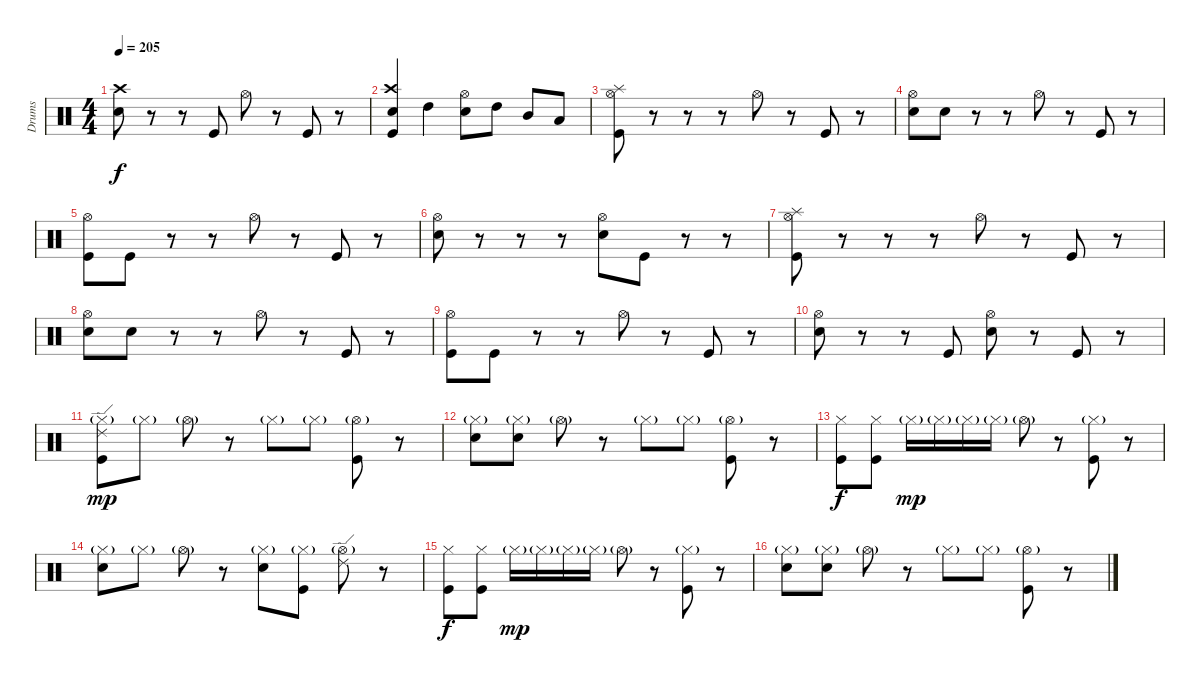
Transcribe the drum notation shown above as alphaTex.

\track ("Drums" "Drums") {instrument percussion}
\staff {score}
\articulation defaults
\ts (4 4)
\tempo 205
\clef neutral
\ks c
("Electric Snare (hit)" "Crash high (hit)").8{dy f} r.8 r.8 "Kick (hit)".8 "Hi-Hat (open)".8 r.8 "Kick (hit)".8 r.8 |
("Electric Snare (hit)" "Crash high (hit)" "Kick (hit)").4 "High Tom (hit)".4 ("Electric Snare (hit)" "Hi-Hat (open)").8 "High Tom (hit)".8 "Mid Tom (hit)".8 "Low Tom (hit)".8 |
("Splash (hit)" "Hi-Hat (open)" "Kick (hit)").8 r.8 r.8 r.8 "Hi-Hat (open)".8 r.8 "Kick (hit)".8 r.8 |
("Electric Snare (hit)" "Hi-Hat (open)").8 "Electric Snare (hit)".8 r.8 r.8 "Hi-Hat (open)".8 r.8 "Kick (hit)".8 r.8 |
("Hi-Hat (open)" "Kick (hit)").8 "Kick (hit)".8 r.8 r.8 "Hi-Hat (open)".8 r.8 "Kick (hit)".8 r.8 |
("Electric Snare (hit)" "Hi-Hat (open)").8 r.8 r.8 r.8 ("Electric Snare (hit)" "Hi-Hat (open)").8 "Kick (hit)".8 r.8 r.8 |
("Splash (hit)" "Hi-Hat (open)" "Kick (hit)").8 r.8 r.8 r.8 "Hi-Hat (open)".8 r.8 "Kick (hit)".8 r.8 |
("Electric Snare (hit)" "Hi-Hat (open)").8 "Electric Snare (hit)".8 r.8 r.8 "Hi-Hat (open)".8 r.8 "Kick (hit)".8 r.8 |
("Hi-Hat (open)" "Kick (hit)").8 "Kick (hit)".8 r.8 r.8 "Hi-Hat (open)".8 r.8 "Kick (hit)".8 r.8 |
("Electric Snare (hit)" "Hi-Hat (open)").8 r.8 r.8 "Kick (hit)".8 ("Electric Snare (hit)" "Hi-Hat (open)").8 r.8 "Kick (hit)".8 r.8 |
("Ride (edge) 2" "Hi-Hat (closed)"{g} "Kick (hit)").8{dy mp} "Hi-Hat (closed)"{g}.8 "Hi-Hat (open)"{g}.8 r.8 "Hi-Hat (closed)"{g}.8 "Hi-Hat (closed)"{g}.8 ("Hi-Hat (open)"{g} "Kick (hit)").8 r.8 |
("Electric Snare (hit)" "Hi-Hat (closed)"{g}).8 ("Electric Snare (hit)" "Hi-Hat (closed)"{g}).8 "Hi-Hat (open)"{g}.8 r.8 "Hi-Hat (closed)"{g}.8 "Hi-Hat (closed)"{g}.8 ("Hi-Hat (open)"{g} "Kick (hit)").8 r.8 |
("Hi-Hat (closed)" "Kick (hit)").8{dy f} ("Hi-Hat (closed)" "Kick (hit)").8 "Hi-Hat (closed)"{g}.16{dy mp} "Hi-Hat (closed)"{g}.16 "Hi-Hat (closed)"{g}.16 "Hi-Hat (closed)"{g}.16 "Hi-Hat (open)"{g}.8 r.8 ("Hi-Hat (closed)"{g} "Kick (hit)").8 r.8 |
("Electric Snare (hit)" "Hi-Hat (closed)"{g}).8 "Hi-Hat (closed)"{g}.8 "Hi-Hat (open)"{g}.8 r.8 ("Electric Snare (hit)" "Hi-Hat (closed)"{g}).8 ("Hi-Hat (closed)"{g} "Kick (hit)").8 ("Ride (edge) 2" "Hi-Hat (open)"{g}).8 r.8 |
("Hi-Hat (closed)" "Kick (hit)").8{dy f} ("Hi-Hat (closed)" "Kick (hit)").8 "Hi-Hat (closed)"{g}.16{dy mp} "Hi-Hat (closed)"{g}.16 "Hi-Hat (closed)"{g}.16 "Hi-Hat (closed)"{g}.16 "Hi-Hat (open)"{g}.8 r.8 ("Hi-Hat (closed)"{g} "Kick (hit)").8 r.8 |
("Electric Snare (hit)" "Hi-Hat (closed)"{g}).8 ("Electric Snare (hit)" "Hi-Hat (closed)"{g}).8 "Hi-Hat (open)"{g}.8 r.8 "Hi-Hat (closed)"{g}.8 "Hi-Hat (closed)"{g}.8 ("Hi-Hat (open)"{g} "Kick (hit)").8 r.8
